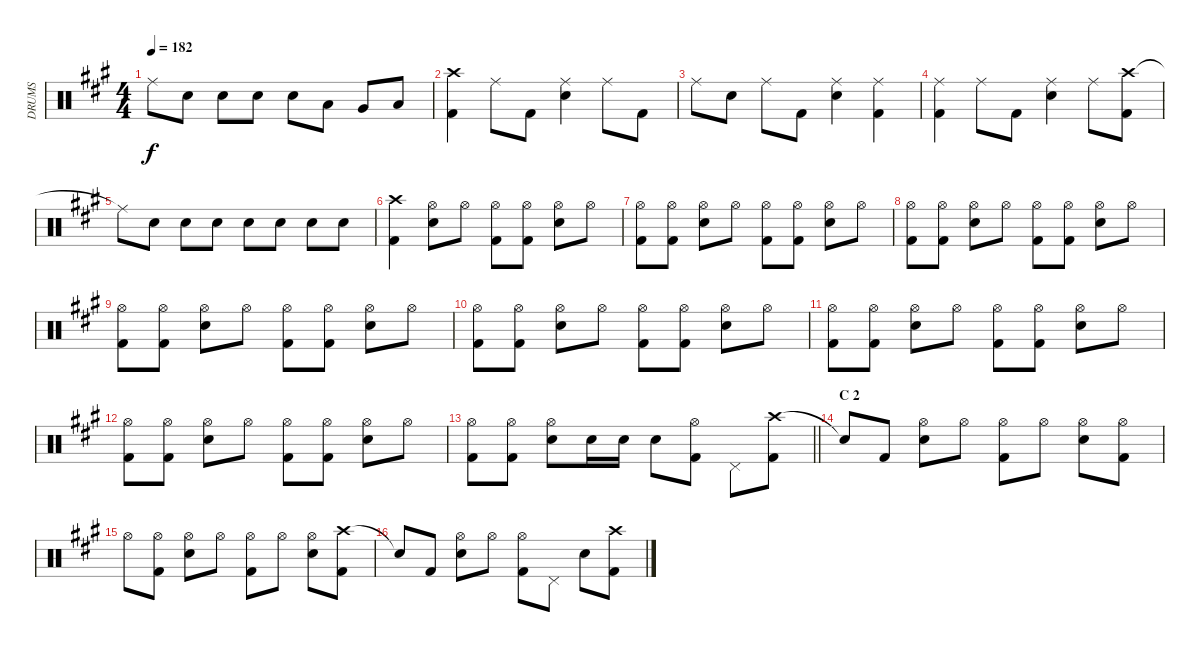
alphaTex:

\track ("DRUMS" "DRUMS") {instrument percussion}
\staff {score}
\articulation defaults
\ts (4 4)
\tempo 182
\clef neutral
\ks a "Ride (middle)".8{dy f} "Snare (hit) 2".8 "Snare (hit) 2".8 "Snare (hit) 2".8 "Snare (hit) 2".8 "Low Tom (hit)".8 "Very Low Tom (hit)".8 "Low Floor Tom (hit)".8
|
("Crash high (hit)" "Kick (hit) 2").4 "Ride (middle)".8 "Kick (hit) 2".8 ("Ride (middle)" "Snare (hit) 2").4 "Ride (middle)".8 "Kick (hit) 2".8 |
"Ride (middle)".8 "Snare (hit) 2".8 "Ride (middle)".8 "Kick (hit) 2".8 ("Ride (middle)" "Snare (hit) 2").4 ("Ride (middle)" "Kick (hit) 2").4 |
("Ride (middle)" "Kick (hit) 2").4 "Ride (middle)".8 "Kick (hit) 2".8 ("Ride (middle)" "Snare (hit) 2").4 "Ride (middle)".8 ("Crash high (hit)" "Kick (hit) 2").8 |
"Ride (middle)"{t}.8 "Snare (hit) 2".8 "Snare (hit) 2".8 "Snare (hit) 2".8 "Snare (hit) 2".8 "Snare (hit) 2".8 "Snare (hit) 2".8 "Snare (hit) 2".8 |
("Crash high (hit)" "Kick (hit) 2").4 ("Hi-Hat (open)" "Snare (hit) 2").8 "Hi-Hat (open)".8 ("Hi-Hat (open)" "Kick (hit) 2").8 ("Hi-Hat (open)" "Kick (hit) 2").8 ("Hi-Hat (open)" "Snare (hit) 2").8 "Hi-Hat (open)".8 |
("Hi-Hat (open)" "Kick (hit) 2").8 ("Hi-Hat (open)" "Kick (hit) 2").8 ("Hi-Hat (open)" "Snare (hit) 2").8 "Hi-Hat (open)".8 ("Hi-Hat (open)" "Kick (hit) 2").8 ("Hi-Hat (open)" "Kick (hit) 2").8 ("Hi-Hat (open)" "Snare (hit) 2").8 "Hi-Hat (open)".8 |
("Hi-Hat (open)" "Kick (hit) 2").8 ("Hi-Hat (open)" "Kick (hit) 2").8 ("Hi-Hat (open)" "Snare (hit) 2").8 "Hi-Hat (open)".8 ("Hi-Hat (open)" "Kick (hit) 2").8 ("Hi-Hat (open)" "Kick (hit) 2").8 ("Hi-Hat (open)" "Snare (hit) 2").8 "Hi-Hat (open)".8 |
("Hi-Hat (open)" "Kick (hit) 2").8 ("Hi-Hat (open)" "Kick (hit) 2").8 ("Hi-Hat (open)" "Snare (hit) 2").8 "Hi-Hat (open)".8 ("Hi-Hat (open)" "Kick (hit) 2").8 ("Hi-Hat (open)" "Kick (hit) 2").8 ("Hi-Hat (open)" "Snare (hit) 2").8 "Hi-Hat (open)".8 |
("Hi-Hat (open)" "Kick (hit) 2").8 ("Hi-Hat (open)" "Kick (hit) 2").8 ("Hi-Hat (open)" "Snare (hit) 2").8 "Hi-Hat (open)".8 ("Hi-Hat (open)" "Kick (hit) 2").8 ("Hi-Hat (open)" "Kick (hit) 2").8 ("Hi-Hat (open)" "Snare (hit) 2").8 "Hi-Hat (open)".8 |
("Hi-Hat (open)" "Kick (hit) 2").8 ("Hi-Hat (open)" "Kick (hit) 2").8 ("Hi-Hat (open)" "Snare (hit) 2").8 "Hi-Hat (open)".8 ("Hi-Hat (open)" "Kick (hit) 2").8 ("Hi-Hat (open)" "Kick (hit) 2").8 ("Hi-Hat (open)" "Snare (hit) 2").8 "Hi-Hat (open)".8 |
("Hi-Hat (open)" "Kick (hit) 2").8 ("Hi-Hat (open)" "Kick (hit) 2").8 ("Hi-Hat (open)" "Snare (hit) 2").8 "Hi-Hat (open)".8 ("Hi-Hat (open)" "Kick (hit) 2").8 ("Hi-Hat (open)" "Kick (hit) 2").8 ("Hi-Hat (open)" "Snare (hit) 2").8 "Hi-Hat (open)".8 |
\barLineRight lightlight
("Hi-Hat (open)" "Kick (hit) 2").8 ("Hi-Hat (open)" "Kick (hit) 2").8 ("Hi-Hat (open)" "Snare (hit) 2").8 "Snare (hit) 2".16 "Snare (hit) 2".16 "Snare (hit) 2".8 ("Hi-Hat (open)" "Kick (hit) 2").8 "Pedal Hi-Hat (hit)".8 ("Crash high (hit)" "Kick (hit) 2").8 |
\section ("" "C 2")
"Snare (hit)"{t}.8 "Kick (hit) 2".8 ("Hi-Hat (open)" "Snare (hit) 2").8 "Hi-Hat (open)".8 ("Hi-Hat (open)" "Kick (hit) 2").8 "Hi-Hat (open)".8 ("Hi-Hat (open)" "Snare (hit) 2").8 ("Hi-Hat (open)" "Kick (hit) 2").8 |
"Hi-Hat (open)".8 ("Hi-Hat (open)" "Kick (hit) 2").8 ("Hi-Hat (open)" "Snare (hit) 2").8 "Hi-Hat (open)".8 ("Hi-Hat (open)" "Kick (hit) 2").8 "Hi-Hat (open)".8 ("Hi-Hat (open)" "Snare (hit) 2").8 ("Crash high (hit)" "Kick (hit) 2").8 |
"Snare (hit)"{t}.8 "Kick (hit) 2".8 ("Hi-Hat (open)" "Snare (hit) 2").8 "Hi-Hat (open)".8 ("Hi-Hat (open)" "Kick (hit) 2").8 "Pedal Hi-Hat (hit)".8 "Snare (hit) 2".8 ("Crash high (hit)" "Kick (hit) 2").8
